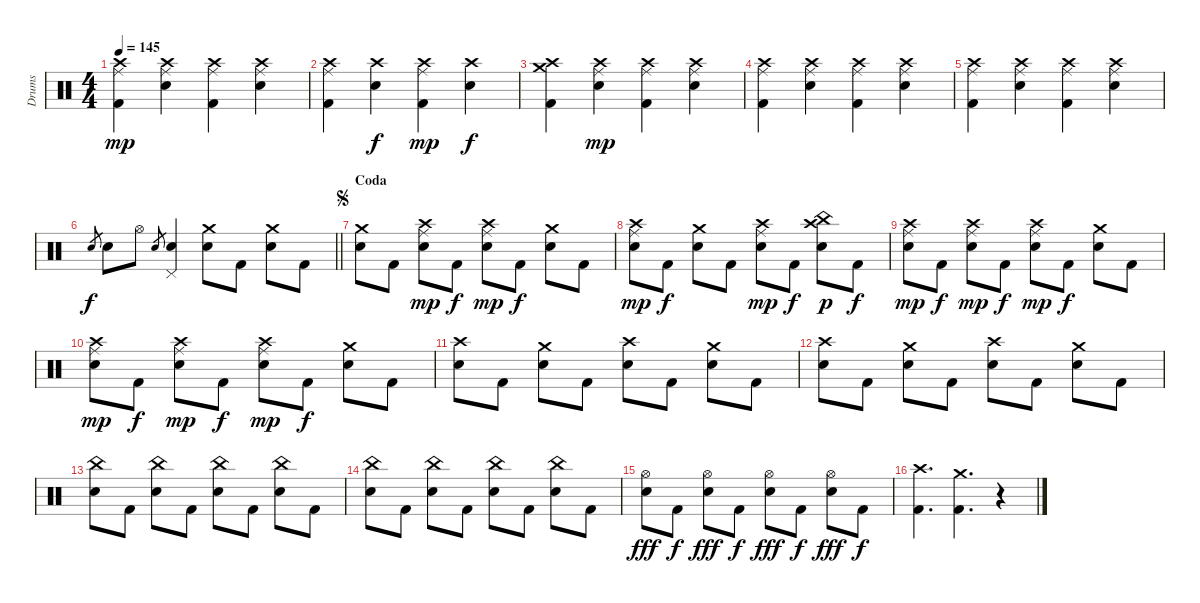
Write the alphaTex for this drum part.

\track ("Drums" "Drums") {instrument percussion}
\staff {score}
\articulation defaults
\ts (4 4)
\tempo 145
\clef neutral
\ks c
("Crash high (hit)" "Kick (hit) 2" "Ride (middle)").4{dy mp} ("Crash high (hit)" "Electric Snare (hit)" "Ride (middle)").4 ("Crash high (hit)" "Kick (hit) 2" "Ride (middle)").4 ("Crash high (hit)" "Electric Snare (hit)" "Ride (middle)").4 |
("Crash high (hit)" "Kick (hit) 2" "Ride (middle)").4 ("Crash high (hit)" "Electric Snare (hit)").4{dy f} ("Crash high (hit)" "Kick (hit) 2" "Ride (middle)").4{dy mp} ("Crash high (hit)" "Electric Snare (hit)").4{dy f} |
("Kick (hit) 2" "Crash medium (hit)" "Crash high (hit)").4 ("Crash high (hit)" "Electric Snare (hit)" "Ride (middle)").4{dy mp} ("Crash high (hit)" "Kick (hit) 2" "Ride (middle)").4 ("Crash high (hit)" "Electric Snare (hit)" "Ride (middle)").4 |
("Crash high (hit)" "Kick (hit) 2" "Ride (middle)").4 ("Crash high (hit)" "Electric Snare (hit)" "Ride (middle)").4 ("Crash high (hit)" "Kick (hit) 2" "Ride (middle)").4 ("Crash high (hit)" "Electric Snare (hit)" "Ride (middle)").4 |
("Crash high (hit)" "Kick (hit) 2" "Ride (middle)").4 ("Crash high (hit)" "Electric Snare (hit)" "Ride (middle)").4 ("Crash high (hit)" "Kick (hit) 2" "Ride (middle)").4 ("Crash high (hit)" "Electric Snare (hit)" "Ride (middle)").4 |
\barLineRight lightlight "Electric Snare (hit)"{x}.8{gr dy f} "Electric Snare (hit)".8 "Hi-Hat (open)".8 "Electric Snare (hit)"{x}.8{gr}
("Pedal Hi-Hat (hit)" "Electric Snare (hit)").4 ("Crash medium (hit)" "Electric Snare (hit)").8 "Kick (hit) 2".8 ("Crash medium (hit)" "Electric Snare (hit)").8 "Kick (hit) 2".8 |
\section ("" "Coda")
\jump segno
("Electric Snare (hit)" "Crash medium (hit)").8 "Kick (hit) 2".8 ("Electric Snare (hit)" "Crash high (hit)" "Ride (middle)").8{dy mp} "Kick (hit) 2".8{dy f} ("Electric Snare (hit)" "Crash high (hit)" "Ride (middle)").8{dy mp} "Kick (hit) 2".8{dy f} ("Electric Snare (hit)" "Crash medium (hit)").8 "Kick (hit) 2".8 |
("Electric Snare (hit)" "Crash high (hit)" "Ride (middle)").8{dy mp} "Kick (hit) 2".8{dy f} ("Electric Snare (hit)" "Crash medium (hit)").8 "Kick (hit) 2".8 ("Electric Snare (hit)" "Crash high (hit)" "Ride (middle)").8{dy mp} "Kick (hit) 2".8{dy f} ("Electric Snare (hit)" "China (hit)" "Crash high (hit)").8{dy p} "Kick (hit) 2".8{dy f} |
("Electric Snare (hit)" "Crash high (hit)" "Ride (middle)").8{dy mp} "Kick (hit) 2".8{dy f} ("Electric Snare (hit)" "Crash high (hit)" "Ride (middle)").8{dy mp} "Kick (hit) 2".8{dy f} ("Electric Snare (hit)" "Crash high (hit)" "Ride (middle)").8{dy mp} "Kick (hit) 2".8{dy f} ("Electric Snare (hit)" "Crash medium (hit)").8 "Kick (hit) 2".8 |
("Electric Snare (hit)" "Crash high (hit)" "Ride (middle)").8{dy mp} "Kick (hit) 2".8{dy f} ("Electric Snare (hit)" "Crash high (hit)" "Ride (middle)").8{dy mp} "Kick (hit) 2".8{dy f} ("Electric Snare (hit)" "Crash high (hit)" "Ride (middle)").8{dy mp} "Kick (hit) 2".8{dy f} ("Electric Snare (hit)" "Crash medium (hit)").8 "Kick (hit) 2".8 |
("Electric Snare (hit)" "Crash high (hit)").8 "Kick (hit) 2".8 ("Electric Snare (hit)" "Crash medium (hit)").8 "Kick (hit) 2".8 ("Electric Snare (hit)" "Crash high (hit)").8 "Kick (hit) 2".8 ("Electric Snare (hit)" "Crash medium (hit)").8 "Kick (hit) 2".8 |
("Electric Snare (hit)" "Crash high (hit)").8 "Kick (hit) 2".8 ("Electric Snare (hit)" "Crash medium (hit)").8 "Kick (hit) 2".8 ("Electric Snare (hit)" "Crash high (hit)").8 "Kick (hit) 2".8 ("Electric Snare (hit)" "Crash medium (hit)").8 "Kick (hit) 2".8 |
("Electric Snare (hit)" "China (hit)").8 "Kick (hit) 2".8 ("Electric Snare (hit)" "China (hit)").8 "Kick (hit) 2".8 ("Electric Snare (hit)" "China (hit)").8 "Kick (hit) 2".8 ("Electric Snare (hit)" "China (hit)").8 "Kick (hit) 2".8 |
("Electric Snare (hit)" "China (hit)").8 "Kick (hit) 2".8 ("Electric Snare (hit)" "China (hit)").8 "Kick (hit) 2".8 ("Electric Snare (hit)" "China (hit)").8 "Kick (hit) 2".8 ("Electric Snare (hit)" "China (hit)").8 "Kick (hit) 2".8 |
("Electric Snare (hit)" "Hi-Hat (open)").8{dy fff} "Kick (hit) 2".8{dy f} ("Electric Snare (hit)" "Hi-Hat (open)").8{dy fff} "Kick (hit) 2".8{dy f} ("Electric Snare (hit)" "Hi-Hat (open)").8{dy fff} "Kick (hit) 2".8{dy f} ("Electric Snare (hit)" "Hi-Hat (open)").8{dy fff} "Kick (hit) 2".8{dy f} |
("Kick (hit) 2" "Crash high (hit)").4{d} ("Crash medium (hit)" "Kick (hit) 2").4{d} r.4
